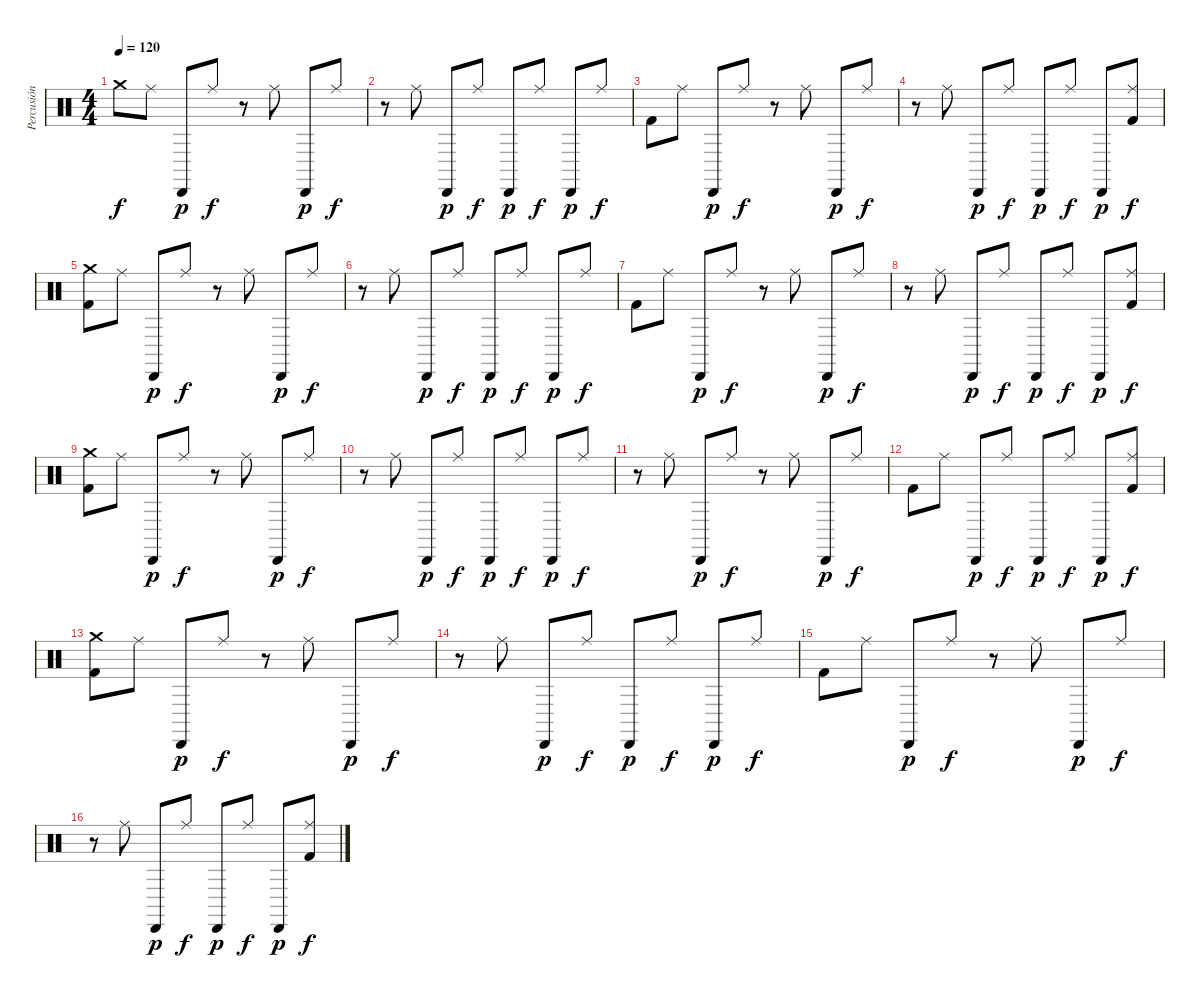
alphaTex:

\track ("Percusión" "Percusión") {instrument percussion}
\staff {score}
\articulation defaults
\ts (4 4)
\tempo 120
\clef neutral
\ks c "Crash medium (hit)".8{dy f} "Ride (middle)".8 "Cabasa (hit)".8{dy p} "Ride (middle)".8{dy f}
r.8 "Ride (middle)".8 "Cabasa (hit)".8{dy p} "Ride (middle)".8{dy f} |
r.8 "Ride (middle)".8 "Cabasa (hit)".8{dy p} "Ride (middle)".8{dy f} "Cabasa (hit)".8{dy p} "Ride (middle)".8{dy f} "Cabasa (hit)".8{dy p} "Ride (middle)".8{dy f} |
"Kick (hit) 2".8 "Ride (middle)".8 "Cabasa (hit)".8{dy p} "Ride (middle)".8{dy f} r.8 "Ride (middle)".8 "Cabasa (hit)".8{dy p} "Ride (middle)".8{dy f} |
r.8 "Ride (middle)".8 "Cabasa (hit)".8{dy p} "Ride (middle)".8{dy f} "Cabasa (hit)".8{dy p} "Ride (middle)".8{dy f} "Cabasa (hit)".8{dy p} ("Kick (hit) 2" "Ride (middle)").8{dy f} |
("Kick (hit) 2" "Crash medium (hit)").8 "Ride (middle)".8 "Cabasa (hit)".8{dy p} "Ride (middle)".8{dy f} r.8 "Ride (middle)".8 "Cabasa (hit)".8{dy p} "Ride (middle)".8{dy f} |
r.8 "Ride (middle)".8 "Cabasa (hit)".8{dy p} "Ride (middle)".8{dy f} "Cabasa (hit)".8{dy p} "Ride (middle)".8{dy f} "Cabasa (hit)".8{dy p} "Ride (middle)".8{dy f} |
"Kick (hit) 2".8 "Ride (middle)".8 "Cabasa (hit)".8{dy p} "Ride (middle)".8{dy f} r.8 "Ride (middle)".8 "Cabasa (hit)".8{dy p} "Ride (middle)".8{dy f} |
r.8 "Ride (middle)".8 "Cabasa (hit)".8{dy p} "Ride (middle)".8{dy f} "Cabasa (hit)".8{dy p} "Ride (middle)".8{dy f} "Cabasa (hit)".8{dy p} ("Kick (hit) 2" "Ride (middle)").8{dy f} |
("Kick (hit) 2" "Crash medium (hit)").8 "Ride (middle)".8 "Cabasa (hit)".8{dy p} "Ride (middle)".8{dy f} r.8 "Ride (middle)".8 "Cabasa (hit)".8{dy p} "Ride (middle)".8{dy f} |
r.8 "Ride (middle)".8 "Cabasa (hit)".8{dy p} "Ride (middle)".8{dy f} "Cabasa (hit)".8{dy p} "Ride (middle)".8{dy f} "Cabasa (hit)".8{dy p} "Ride (middle)".8{dy f} |
r.8 "Ride (middle)".8 "Cabasa (hit)".8{dy p} "Ride (middle)".8{dy f} r.8 "Ride (middle)".8 "Cabasa (hit)".8{dy p} "Ride (middle)".8{dy f} |
"Kick (hit) 2".8 "Ride (middle)".8 "Cabasa (hit)".8{dy p} "Ride (middle)".8{dy f} "Cabasa (hit)".8{dy p} "Ride (middle)".8{dy f} "Cabasa (hit)".8{dy p} ("Kick (hit) 2" "Ride (middle)").8{dy f} |
("Kick (hit) 2" "Crash medium (hit)").8 "Ride (middle)".8 "Cabasa (hit)".8{dy p} "Ride (middle)".8{dy f} r.8 "Ride (middle)".8 "Cabasa (hit)".8{dy p} "Ride (middle)".8{dy f} |
r.8 "Ride (middle)".8 "Cabasa (hit)".8{dy p} "Ride (middle)".8{dy f} "Cabasa (hit)".8{dy p} "Ride (middle)".8{dy f} "Cabasa (hit)".8{dy p} "Ride (middle)".8{dy f} |
"Kick (hit) 2".8 "Ride (middle)".8 "Cabasa (hit)".8{dy p} "Ride (middle)".8{dy f} r.8 "Ride (middle)".8 "Cabasa (hit)".8{dy p} "Ride (middle)".8{dy f} |
r.8 "Ride (middle)".8 "Cabasa (hit)".8{dy p} "Ride (middle)".8{dy f} "Cabasa (hit)".8{dy p} "Ride (middle)".8{dy f} "Cabasa (hit)".8{dy p} ("Kick (hit) 2" "Ride (middle)").8{dy f}
